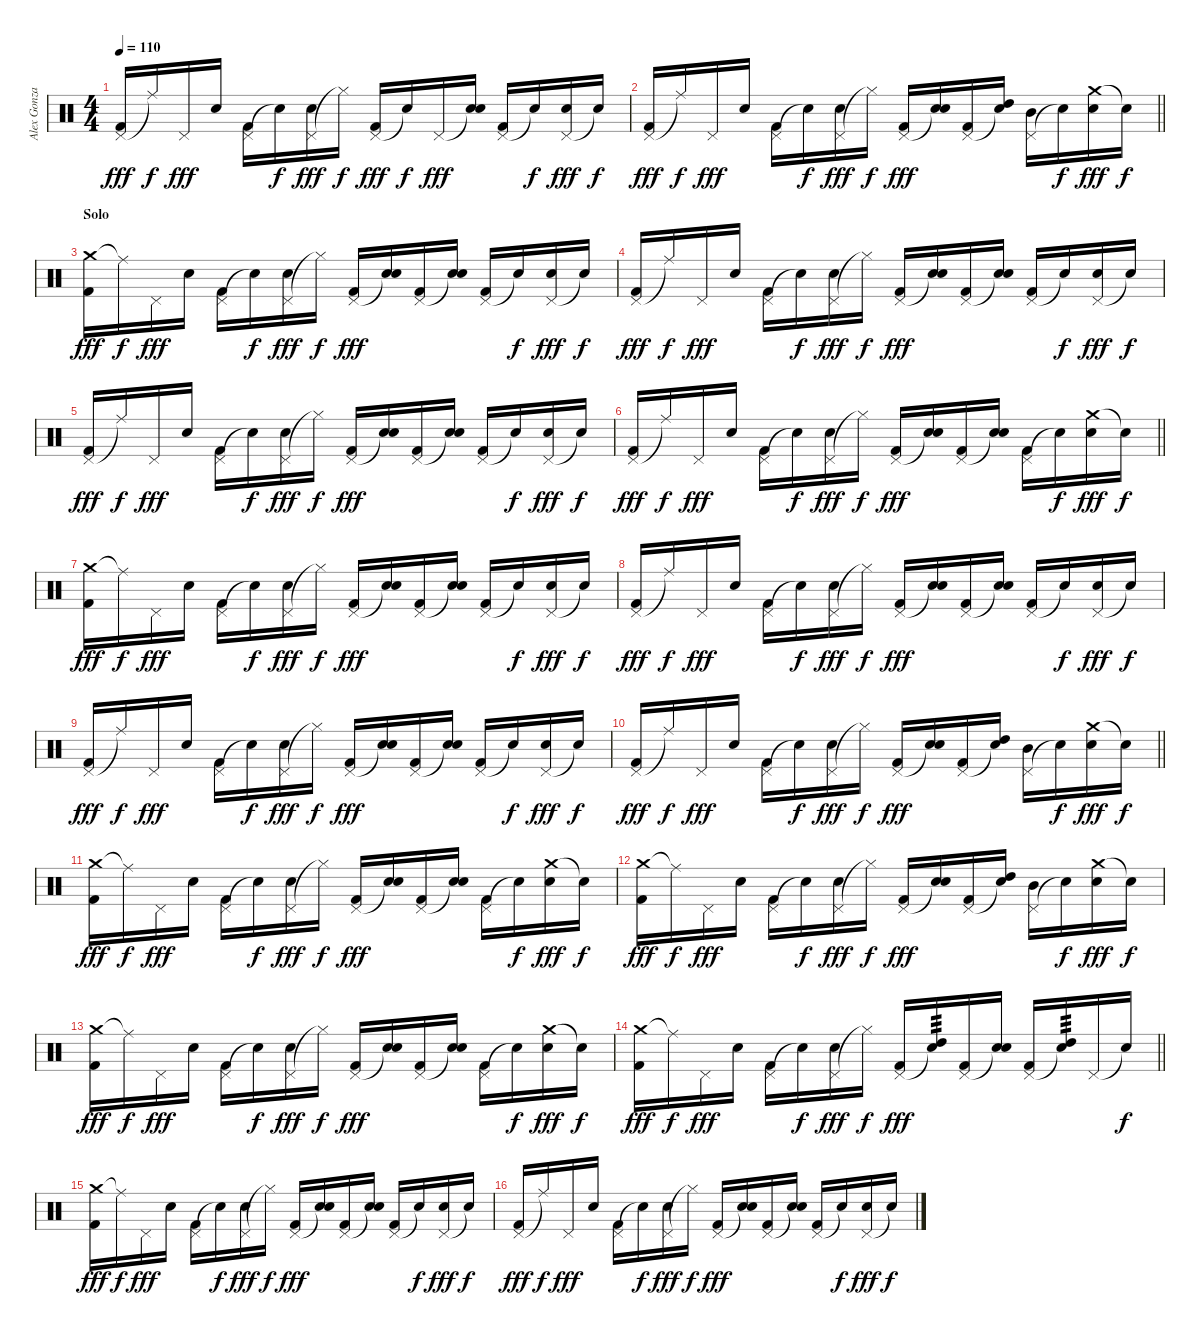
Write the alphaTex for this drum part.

\track ("Alex Gonzalez" "Alex Gonza") {instrument percussion}
\staff {score}
\articulation defaults
\ts (4 4)
\tempo 110
\clef neutral
\ks c
("Pedal Hi-Hat (hit)" "Kick (hit) 2").16{dy fff} "Ride (middle)"{t}.16{dy f} "Pedal Hi-Hat (hit)".16{dy fff} "Electric Snare (hit)".16 ("Pedal Hi-Hat (hit)" "Kick (hit) 2").16 "Snare (hit)"{t}.16{dy f} ("Pedal Hi-Hat (hit)" "Electric Snare (hit)").16{dy fff} "Hi-Hat (closed)"{t}.16{dy f} ("Pedal Hi-Hat (hit)" "Kick (hit) 2").16{dy fff} "Snare (hit)"{t}.16{dy f} "Pedal Hi-Hat (hit)".16{dy fff} ("Snare (hit)"{t} "Electric Snare (hit)").16 ("Pedal Hi-Hat (hit)" "Kick (hit) 2").16 "Snare (hit)"{t}.16{dy f} ("Pedal Hi-Hat (hit)" "Electric Snare (hit)").16{dy fff} "Snare (hit)"{t}.16{dy f} |
\barLineRight lightlight
("Pedal Hi-Hat (hit)" "Kick (hit) 2").16{dy fff} "Ride (middle)"{t}.16{dy f} "Pedal Hi-Hat (hit)".16{dy fff} "Electric Snare (hit)".16 ("Pedal Hi-Hat (hit)" "Kick (hit) 2").16 "Snare (hit)"{t}.16{dy f} ("Pedal Hi-Hat (hit)" "Electric Snare (hit)").16{dy fff} "Hi-Hat (closed)"{t}.16{dy f} ("Pedal Hi-Hat (hit)" "Kick (hit) 2").16{dy fff} ("Snare (hit)"{t} "Electric Snare (hit)").16 ("Pedal Hi-Hat (hit)" "Kick (hit) 2").16 ("Snare (hit)"{t} "High Tom (hit)").16 ("Pedal Hi-Hat (hit)" "Mid Tom (hit)").16 "Snare (hit)"{t}.16{dy f} ("Crash medium (hit)" "Electric Snare (hit)").16{dy fff} "Snare (hit)"{t}.16{dy f} |
\section ("" "Solo")
("Crash medium (hit)" "Kick (hit) 2").16{dy fff} "Ride (middle)"{t}.16{dy f} "Pedal Hi-Hat (hit)".16{dy fff} "Electric Snare (hit)".16 ("Pedal Hi-Hat (hit)" "Kick (hit) 2").16 "Snare (hit)"{t}.16{dy f} ("Pedal Hi-Hat (hit)" "Electric Snare (hit)").16{dy fff} "Hi-Hat (closed)"{t}.16{dy f} ("Pedal Hi-Hat (hit)" "Kick (hit) 2").16{dy fff} ("Snare (hit)"{t} "Electric Snare (hit)").16 ("Pedal Hi-Hat (hit)" "Kick (hit) 2").16 ("Snare (hit)"{t} "Electric Snare (hit)").16 ("Pedal Hi-Hat (hit)" "Kick (hit) 2").16 "Snare (hit)"{t}.16{dy f} ("Pedal Hi-Hat (hit)" "Electric Snare (hit)").16{dy fff} "Snare (hit)"{t}.16{dy f} |
("Pedal Hi-Hat (hit)" "Kick (hit) 2").16{dy fff} "Ride (middle)"{t}.16{dy f} "Pedal Hi-Hat (hit)".16{dy fff} "Electric Snare (hit)".16 ("Pedal Hi-Hat (hit)" "Kick (hit) 2").16 "Snare (hit)"{t}.16{dy f} ("Pedal Hi-Hat (hit)" "Electric Snare (hit)").16{dy fff} "Hi-Hat (closed)"{t}.16{dy f} ("Pedal Hi-Hat (hit)" "Kick (hit) 2").16{dy fff} ("Snare (hit)"{t} "Electric Snare (hit)").16 ("Pedal Hi-Hat (hit)" "Kick (hit) 2").16 ("Snare (hit)"{t} "Electric Snare (hit)").16 ("Pedal Hi-Hat (hit)" "Kick (hit) 2").16 "Snare (hit)"{t}.16{dy f} ("Pedal Hi-Hat (hit)" "Electric Snare (hit)").16{dy fff} "Snare (hit)"{t}.16{dy f} |
("Pedal Hi-Hat (hit)" "Kick (hit) 2").16{dy fff} "Ride (middle)"{t}.16{dy f} "Pedal Hi-Hat (hit)".16{dy fff} "Electric Snare (hit)".16 ("Pedal Hi-Hat (hit)" "Kick (hit) 2").16 "Snare (hit)"{t}.16{dy f} ("Pedal Hi-Hat (hit)" "Electric Snare (hit)").16{dy fff} "Hi-Hat (closed)"{t}.16{dy f} ("Pedal Hi-Hat (hit)" "Kick (hit) 2").16{dy fff} ("Snare (hit)"{t} "Electric Snare (hit)").16 ("Pedal Hi-Hat (hit)" "Kick (hit) 2").16 ("Snare (hit)"{t} "Electric Snare (hit)").16 ("Pedal Hi-Hat (hit)" "Kick (hit) 2").16 "Snare (hit)"{t}.16{dy f} ("Pedal Hi-Hat (hit)" "Electric Snare (hit)").16{dy fff} "Snare (hit)"{t}.16{dy f} |
\barLineRight lightlight
("Pedal Hi-Hat (hit)" "Kick (hit) 2").16{dy fff} "Ride (middle)"{t}.16{dy f} "Pedal Hi-Hat (hit)".16{dy fff} "Electric Snare (hit)".16 ("Pedal Hi-Hat (hit)" "Kick (hit) 2").16 "Snare (hit)"{t}.16{dy f} ("Pedal Hi-Hat (hit)" "Electric Snare (hit)").16{dy fff} "Hi-Hat (closed)"{t}.16{dy f} ("Pedal Hi-Hat (hit)" "Kick (hit) 2").16{dy fff} ("Snare (hit)"{t} "Electric Snare (hit)").16 ("Pedal Hi-Hat (hit)" "Kick (hit) 2").16 ("Snare (hit)"{t} "Electric Snare (hit)").16 ("Pedal Hi-Hat (hit)" "Kick (hit) 2").16 "Snare (hit)"{t}.16{dy f} ("Crash medium (hit)" "Electric Snare (hit)").16{dy fff} "Snare (hit)"{t}.16{dy f} |
("Crash medium (hit)" "Kick (hit) 2").16{dy fff} "Ride (middle)"{t}.16{dy f} "Pedal Hi-Hat (hit)".16{dy fff} "Electric Snare (hit)".16 ("Pedal Hi-Hat (hit)" "Kick (hit) 2").16 "Snare (hit)"{t}.16{dy f} ("Pedal Hi-Hat (hit)" "Electric Snare (hit)").16{dy fff} "Hi-Hat (closed)"{t}.16{dy f} ("Pedal Hi-Hat (hit)" "Kick (hit) 2").16{dy fff} ("Snare (hit)"{t} "Electric Snare (hit)").16 ("Pedal Hi-Hat (hit)" "Kick (hit) 2").16 ("Snare (hit)"{t} "Electric Snare (hit)").16 ("Pedal Hi-Hat (hit)" "Kick (hit) 2").16 "Snare (hit)"{t}.16{dy f} ("Pedal Hi-Hat (hit)" "Electric Snare (hit)").16{dy fff} "Snare (hit)"{t}.16{dy f} |
("Pedal Hi-Hat (hit)" "Kick (hit) 2").16{dy fff} "Ride (middle)"{t}.16{dy f} "Pedal Hi-Hat (hit)".16{dy fff} "Electric Snare (hit)".16 ("Pedal Hi-Hat (hit)" "Kick (hit) 2").16 "Snare (hit)"{t}.16{dy f} ("Pedal Hi-Hat (hit)" "Electric Snare (hit)").16{dy fff} "Hi-Hat (closed)"{t}.16{dy f} ("Pedal Hi-Hat (hit)" "Kick (hit) 2").16{dy fff} ("Snare (hit)"{t} "Electric Snare (hit)").16 ("Pedal Hi-Hat (hit)" "Kick (hit) 2").16 ("Snare (hit)"{t} "Electric Snare (hit)").16 ("Pedal Hi-Hat (hit)" "Kick (hit) 2").16 "Snare (hit)"{t}.16{dy f} ("Pedal Hi-Hat (hit)" "Electric Snare (hit)").16{dy fff} "Snare (hit)"{t}.16{dy f} |
("Pedal Hi-Hat (hit)" "Kick (hit) 2").16{dy fff} "Ride (middle)"{t}.16{dy f} "Pedal Hi-Hat (hit)".16{dy fff} "Electric Snare (hit)".16 ("Pedal Hi-Hat (hit)" "Kick (hit) 2").16 "Snare (hit)"{t}.16{dy f} ("Pedal Hi-Hat (hit)" "Electric Snare (hit)").16{dy fff} "Hi-Hat (closed)"{t}.16{dy f} ("Pedal Hi-Hat (hit)" "Kick (hit) 2").16{dy fff} ("Snare (hit)"{t} "Electric Snare (hit)").16 ("Pedal Hi-Hat (hit)" "Kick (hit) 2").16 ("Snare (hit)"{t} "Electric Snare (hit)").16 ("Pedal Hi-Hat (hit)" "Kick (hit) 2").16 "Snare (hit)"{t}.16{dy f} ("Pedal Hi-Hat (hit)" "Electric Snare (hit)").16{dy fff} "Snare (hit)"{t}.16{dy f} |
\barLineRight lightlight
("Pedal Hi-Hat (hit)" "Kick (hit) 2").16{dy fff} "Ride (middle)"{t}.16{dy f} "Pedal Hi-Hat (hit)".16{dy fff} "Electric Snare (hit)".16 ("Pedal Hi-Hat (hit)" "Kick (hit) 2").16 "Snare (hit)"{t}.16{dy f} ("Pedal Hi-Hat (hit)" "Electric Snare (hit)").16{dy fff} "Hi-Hat (closed)"{t}.16{dy f} ("Pedal Hi-Hat (hit)" "Kick (hit) 2").16{dy fff} ("Snare (hit)"{t} "Electric Snare (hit)").16 ("Pedal Hi-Hat (hit)" "Kick (hit) 2").16 ("Snare (hit)"{t} "High Tom (hit)").16 ("Pedal Hi-Hat (hit)" "Mid Tom (hit)").16 "Snare (hit)"{t}.16{dy f} ("Crash medium (hit)" "Electric Snare (hit)").16{dy fff} "Snare (hit)"{t}.16{dy f} |
("Crash medium (hit)" "Kick (hit) 2").16{dy fff} "Ride (middle)"{t}.16{dy f} "Pedal Hi-Hat (hit)".16{dy fff} "Electric Snare (hit)".16 ("Pedal Hi-Hat (hit)" "Kick (hit) 2").16 "Snare (hit)"{t}.16{dy f} ("Pedal Hi-Hat (hit)" "Electric Snare (hit)").16{dy fff} "Hi-Hat (closed)"{t}.16{dy f} ("Pedal Hi-Hat (hit)" "Kick (hit) 2").16{dy fff} ("Snare (hit)"{t} "Electric Snare (hit)").16 ("Pedal Hi-Hat (hit)" "Kick (hit) 2").16 ("Snare (hit)"{t} "Electric Snare (hit)").16 ("Pedal Hi-Hat (hit)" "Kick (hit) 2").16 "Snare (hit)"{t}.16{dy f} ("Crash medium (hit)" "Electric Snare (hit)").16{dy fff} "Snare (hit)"{t}.16{dy f} |
("Crash medium (hit)" "Kick (hit) 2").16{dy fff} "Ride (middle)"{t}.16{dy f} "Pedal Hi-Hat (hit)".16{dy fff} "Electric Snare (hit)".16 ("Pedal Hi-Hat (hit)" "Kick (hit) 2").16 "Snare (hit)"{t}.16{dy f} ("Pedal Hi-Hat (hit)" "Electric Snare (hit)").16{dy fff} "Hi-Hat (closed)"{t}.16{dy f} ("Pedal Hi-Hat (hit)" "Kick (hit) 2").16{dy fff} ("Snare (hit)"{t} "Electric Snare (hit)").16 ("Pedal Hi-Hat (hit)" "Kick (hit) 2").16 ("Snare (hit)"{t} "High Tom (hit)").16 ("Pedal Hi-Hat (hit)" "Mid Tom (hit)").16 "Snare (hit)"{t}.16{dy f} ("Crash medium (hit)" "Electric Snare (hit)").16{dy fff} "Snare (hit)"{t}.16{dy f} |
("Crash medium (hit)" "Kick (hit) 2").16{dy fff} "Ride (middle)"{t}.16{dy f} "Pedal Hi-Hat (hit)".16{dy fff} "Electric Snare (hit)".16 ("Pedal Hi-Hat (hit)" "Kick (hit) 2").16 "Snare (hit)"{t}.16{dy f} ("Pedal Hi-Hat (hit)" "Electric Snare (hit)").16{dy fff} "Hi-Hat (closed)"{t}.16{dy f} ("Pedal Hi-Hat (hit)" "Kick (hit) 2").16{dy fff} ("Snare (hit)"{t} "Electric Snare (hit)").16 ("Pedal Hi-Hat (hit)" "Kick (hit) 2").16 ("Snare (hit)"{t} "Electric Snare (hit)").16 ("Pedal Hi-Hat (hit)" "Kick (hit) 2").16 "Snare (hit)"{t}.16{dy f} ("Crash medium (hit)" "Electric Snare (hit)").16{dy fff} "Snare (hit)"{t}.16{dy f} |
\barLineRight lightlight
("Crash medium (hit)" "Kick (hit) 2").16{dy fff} "Ride (middle)"{t}.16{dy f} "Pedal Hi-Hat (hit)".16{dy fff} "Electric Snare (hit)".16 ("Pedal Hi-Hat (hit)" "Kick (hit) 2").16 "Snare (hit)"{t}.16{dy f} ("Pedal Hi-Hat (hit)" "Electric Snare (hit)").16{dy fff} "Hi-Hat (closed)"{t}.16{dy f} ("Pedal Hi-Hat (hit)" "Kick (hit) 2").16{dy fff} ("Snare (hit)"{t} "High Tom (hit)").16{tp 3} ("Pedal Hi-Hat (hit)" "Kick (hit) 2").16 ("Snare (hit)"{t} "Electric Snare (hit)").16 ("Pedal Hi-Hat (hit)" "Kick (hit) 2").16 ("Snare (hit)"{t} "High Tom (hit)").16{tp 3} "Pedal Hi-Hat (hit)".16 "Snare (hit)"{t}.16{dy f} |
("Crash medium (hit)" "Kick (hit) 2").16{dy fff} "Ride (middle)"{t}.16{dy f} "Pedal Hi-Hat (hit)".16{dy fff} "Electric Snare (hit)".16 ("Pedal Hi-Hat (hit)" "Kick (hit) 2").16 "Snare (hit)"{t}.16{dy f} ("Pedal Hi-Hat (hit)" "Electric Snare (hit)").16{dy fff} "Hi-Hat (closed)"{t}.16{dy f} ("Pedal Hi-Hat (hit)" "Kick (hit) 2").16{dy fff} ("Snare (hit)"{t} "Electric Snare (hit)").16 ("Pedal Hi-Hat (hit)" "Kick (hit) 2").16 ("Snare (hit)"{t} "Electric Snare (hit)").16 ("Pedal Hi-Hat (hit)" "Kick (hit) 2").16 "Snare (hit)"{t}.16{dy f} ("Pedal Hi-Hat (hit)" "Electric Snare (hit)").16{dy fff} "Snare (hit)"{t}.16{dy f} |
("Pedal Hi-Hat (hit)" "Kick (hit) 2").16{dy fff} "Ride (middle)"{t}.16{dy f} "Pedal Hi-Hat (hit)".16{dy fff} "Electric Snare (hit)".16 ("Pedal Hi-Hat (hit)" "Kick (hit) 2").16 "Snare (hit)"{t}.16{dy f} ("Pedal Hi-Hat (hit)" "Electric Snare (hit)").16{dy fff} "Hi-Hat (closed)"{t}.16{dy f} ("Pedal Hi-Hat (hit)" "Kick (hit) 2").16{dy fff} ("Snare (hit)"{t} "Electric Snare (hit)").16 ("Pedal Hi-Hat (hit)" "Kick (hit) 2").16 ("Snare (hit)"{t} "Electric Snare (hit)").16 ("Pedal Hi-Hat (hit)" "Kick (hit) 2").16 "Snare (hit)"{t}.16{dy f} ("Pedal Hi-Hat (hit)" "Electric Snare (hit)").16{dy fff} "Snare (hit)"{t}.16{dy f}
